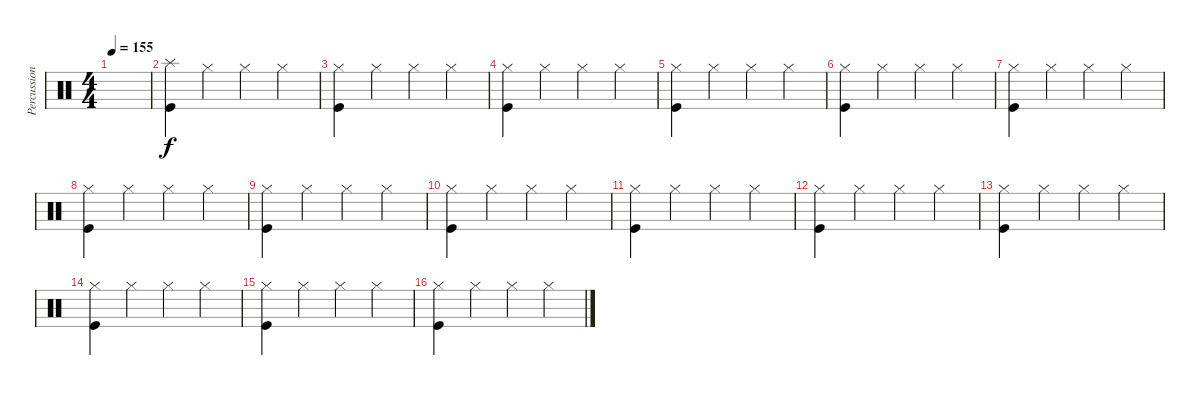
\track ("Percussions" "Percussion") {instrument percussion}
\staff {score}
\articulation defaults
\ts (4 4)
\tempo 155
\clef neutral
\ks c
|
("Splash (hit)" "Kick (hit)").4 "Hi-Hat (closed)".4 "Hi-Hat (closed)".4 "Hi-Hat (closed)".4 |
("Hi-Hat (closed)" "Kick (hit)").4 "Hi-Hat (closed)".4 "Hi-Hat (closed)".4 "Hi-Hat (closed)".4 |
("Hi-Hat (closed)" "Kick (hit)").4 "Hi-Hat (closed)".4 "Hi-Hat (closed)".4 "Hi-Hat (closed)".4 |
("Hi-Hat (closed)" "Kick (hit)").4 "Hi-Hat (closed)".4 "Hi-Hat (closed)".4 "Hi-Hat (closed)".4 |
("Hi-Hat (closed)" "Kick (hit)").4 "Hi-Hat (closed)".4 "Hi-Hat (closed)".4 "Hi-Hat (closed)".4 |
("Hi-Hat (closed)" "Kick (hit)").4 "Hi-Hat (closed)".4 "Hi-Hat (closed)".4 "Hi-Hat (closed)".4 |
("Hi-Hat (closed)" "Kick (hit)").4 "Hi-Hat (closed)".4 "Hi-Hat (closed)".4 "Hi-Hat (closed)".4 |
("Hi-Hat (closed)" "Kick (hit)").4 "Hi-Hat (closed)".4 "Hi-Hat (closed)".4 "Hi-Hat (closed)".4 |
("Hi-Hat (closed)" "Kick (hit)").4 "Hi-Hat (closed)".4 "Hi-Hat (closed)".4 "Hi-Hat (closed)".4 |
("Hi-Hat (closed)" "Kick (hit)").4 "Hi-Hat (closed)".4 "Hi-Hat (closed)".4 "Hi-Hat (closed)".4 |
("Hi-Hat (closed)" "Kick (hit)").4 "Hi-Hat (closed)".4 "Hi-Hat (closed)".4 "Hi-Hat (closed)".4 |
("Hi-Hat (closed)" "Kick (hit)").4 "Hi-Hat (closed)".4 "Hi-Hat (closed)".4 "Hi-Hat (closed)".4 |
("Hi-Hat (closed)" "Kick (hit)").4 "Hi-Hat (closed)".4 "Hi-Hat (closed)".4 "Hi-Hat (closed)".4 |
("Hi-Hat (closed)" "Kick (hit)").4 "Hi-Hat (closed)".4 "Hi-Hat (closed)".4 "Hi-Hat (closed)".4 |
("Hi-Hat (closed)" "Kick (hit)").4 "Hi-Hat (closed)".4 "Hi-Hat (closed)".4 "Hi-Hat (closed)".4
